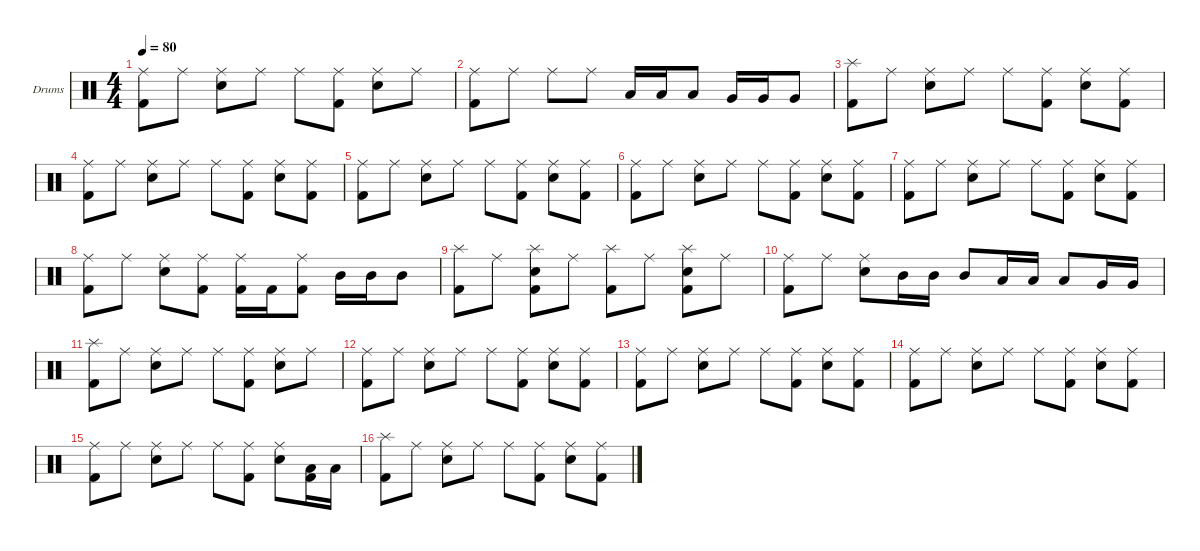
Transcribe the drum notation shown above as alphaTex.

\hideDynamics
\bracketExtendMode nobrackets
\firstSystemTrackNameOrientation horizontal
\otherSystemsTrackNameOrientation horizontal
\track ("Drumkit" "Drums") {instrument percussion}
\staff {score}
\articulation defaults
\ts (4 4)
\tempo 80
\clef neutral
\ks c
("Ride (middle)" "Kick (hit) 2").8{dy f} "Ride (middle)".8 ("Ride (middle)" "Snare (hit) 2").8 "Ride (middle)".8 "Ride (middle)".8 ("Ride (middle)" "Kick (hit) 2").8 ("Ride (middle)" "Snare (hit) 2").8 "Ride (middle)".8 |
("Ride (middle)" "Kick (hit) 2").8 "Ride (middle)".8 "Ride (middle)".8 "Ride (middle)".8 "Low Tom (hit)".16 "Low Tom (hit)".16 "Low Tom (hit)".8 "Very Low Tom (hit)".16 "Very Low Tom (hit)".16 "Very Low Tom (hit)".8 |
("Splash (hit)" "Kick (hit) 2").8 "Ride (middle)".8 ("Ride (middle)" "Snare (hit) 2").8 "Ride (middle)".8 "Ride (middle)".8 ("Ride (middle)" "Kick (hit) 2").8 ("Ride (middle)" "Snare (hit) 2").8 ("Ride (middle)" "Kick (hit) 2").8 |
("Ride (middle)" "Kick (hit) 2").8 "Ride (middle)".8 ("Ride (middle)" "Snare (hit) 2").8 "Ride (middle)".8 "Ride (middle)".8 ("Ride (middle)" "Kick (hit) 2").8 ("Ride (middle)" "Snare (hit) 2").8 ("Ride (middle)" "Kick (hit) 2").8 |
("Ride (middle)" "Kick (hit) 2").8 "Ride (middle)".8 ("Ride (middle)" "Snare (hit) 2").8 "Ride (middle)".8 "Ride (middle)".8 ("Ride (middle)" "Kick (hit) 2").8 ("Ride (middle)" "Snare (hit) 2").8 ("Ride (middle)" "Kick (hit) 2").8 |
("Ride (middle)" "Kick (hit) 2").8 "Ride (middle)".8 ("Ride (middle)" "Snare (hit) 2").8 "Ride (middle)".8 "Ride (middle)".8 ("Ride (middle)" "Kick (hit) 2").8 ("Ride (middle)" "Snare (hit) 2").8 ("Ride (middle)" "Kick (hit) 2").8 |
("Ride (middle)" "Kick (hit) 2").8 "Ride (middle)".8 ("Ride (middle)" "Snare (hit) 2").8 "Ride (middle)".8 "Ride (middle)".8 ("Ride (middle)" "Kick (hit) 2").8 ("Ride (middle)" "Snare (hit) 2").8 ("Ride (middle)" "Kick (hit) 2").8 |
("Ride (middle)" "Kick (hit) 2").8 "Ride (middle)".8 ("Ride (middle)" "Snare (hit) 2").8 ("Ride (middle)" "Kick (hit) 2").8 ("Ride (middle)" "Kick (hit) 2").16 "Kick (hit) 2".16 ("Ride (middle)" "Kick (hit) 2").8 "Mid Tom (hit)".16 "Mid Tom (hit)".16 "Mid Tom (hit)".8 |
("Splash (hit)" "Kick (hit) 2").8 "Ride (middle)".8 ("Splash (hit)" "Snare (hit) 2" "Kick (hit) 2").8 "Ride (middle)".8 ("Splash (hit)" "Kick (hit) 2").8 "Ride (middle)".8 ("Splash (hit)" "Snare (hit) 2" "Kick (hit) 2").8 "Ride (middle)".8 |
("Ride (middle)" "Kick (hit) 2").8 "Ride (middle)".8 ("Ride (middle)" "Snare (hit) 2").8 "Mid Tom (hit)".16 "Mid Tom (hit)".16 "Mid Tom (hit)".8 "Low Tom (hit)".16 "Low Tom (hit)".16 "Low Tom (hit)".8 "Very Low Tom (hit)".16 "Very Low Tom (hit)".16 |
("Splash (hit)" "Kick (hit) 2").8 "Ride (middle)".8 ("Ride (middle)" "Snare (hit) 2").8 "Ride (middle)".8 "Ride (middle)".8 ("Ride (middle)" "Kick (hit) 2").8 ("Ride (middle)" "Snare (hit) 2").8 "Ride (middle)".8 |
("Ride (middle)" "Kick (hit) 2").8 "Ride (middle)".8 ("Ride (middle)" "Snare (hit) 2").8 "Ride (middle)".8 "Ride (middle)".8 ("Ride (middle)" "Kick (hit) 2").8 ("Ride (middle)" "Snare (hit) 2").8 ("Ride (middle)" "Kick (hit) 2").8 |
("Ride (middle)" "Kick (hit) 2").8 "Ride (middle)".8 ("Ride (middle)" "Snare (hit) 2").8 "Ride (middle)".8 "Ride (middle)".8 ("Ride (middle)" "Kick (hit) 2").8 ("Ride (middle)" "Snare (hit) 2").8 ("Ride (middle)" "Kick (hit) 2").8 |
("Ride (middle)" "Kick (hit) 2").8 "Ride (middle)".8 ("Ride (middle)" "Snare (hit) 2").8 "Ride (middle)".8 "Ride (middle)".8 ("Ride (middle)" "Kick (hit) 2").8 ("Ride (middle)" "Snare (hit) 2").8 ("Ride (middle)" "Kick (hit) 2").8 |
("Ride (middle)" "Kick (hit) 2").8 "Ride (middle)".8 ("Ride (middle)" "Snare (hit) 2").8 "Ride (middle)".8 "Ride (middle)".8 ("Ride (middle)" "Kick (hit) 2").8 ("Ride (middle)" "Snare (hit) 2").8 ("Low Tom (hit)" "Kick (hit) 2").16 "Low Tom (hit)".16 |
("Splash (hit)" "Kick (hit) 2").8 "Ride (middle)".8 ("Ride (middle)" "Snare (hit) 2").8 "Ride (middle)".8 "Ride (middle)".8 ("Ride (middle)" "Kick (hit) 2").8 ("Ride (middle)" "Snare (hit) 2").8 ("Ride (middle)" "Kick (hit) 2").8
